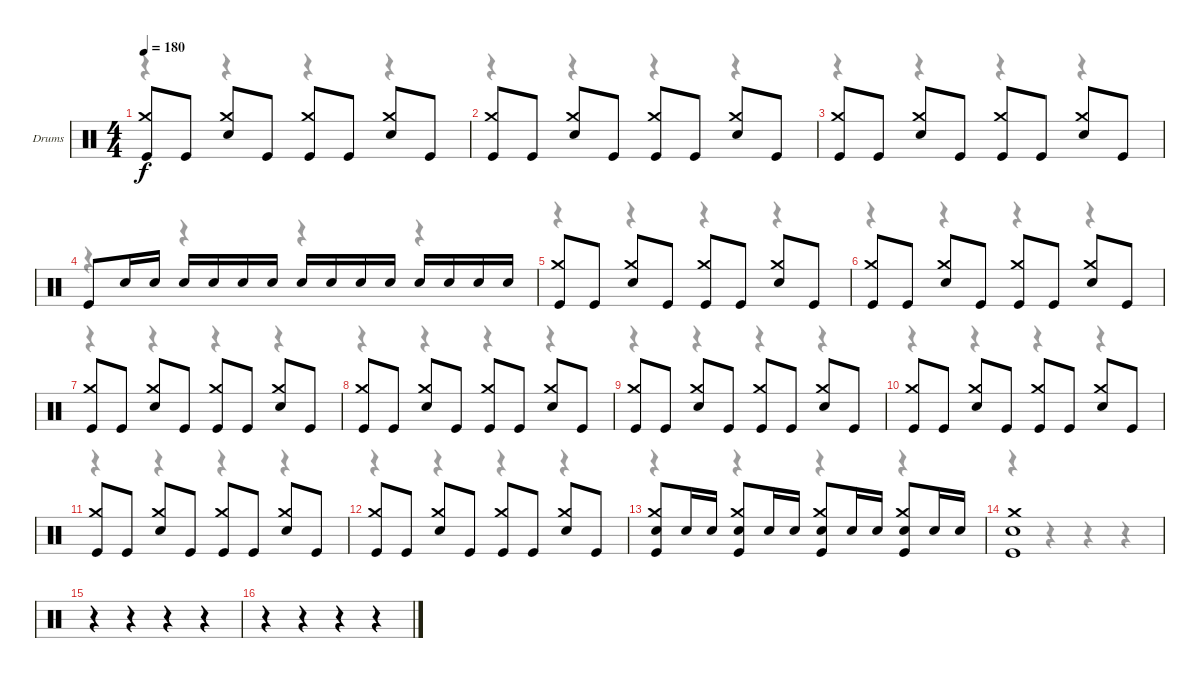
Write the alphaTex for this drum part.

\bracketExtendMode groupsimilarinstruments
\firstSystemTrackNameOrientation horizontal
\otherSystemsTrackNameOrientation horizontal
\track ("Drumkit" "Drums") {instrument percussion}
\staff {score}
\articulation defaults
\voice
\ts (4 4)
\tempo 180
\clef neutral
\ks c
("Crash medium (hit)" "Kick (hit)").8{dy f} "Kick (hit)".8 ("Crash medium (hit)" "Snare (hit) 2").8 "Kick (hit)".8 ("Crash medium (hit)" "Kick (hit)").8 "Kick (hit)".8 ("Crash medium (hit)" "Snare (hit) 2").8 "Kick (hit)".8 |
("Crash medium (hit)" "Kick (hit)").8 "Kick (hit)".8 ("Crash medium (hit)" "Snare (hit) 2").8 "Kick (hit)".8 ("Crash medium (hit)" "Kick (hit)").8 "Kick (hit)".8 ("Crash medium (hit)" "Snare (hit) 2").8 "Kick (hit)".8 |
("Crash medium (hit)" "Kick (hit)").8 "Kick (hit)".8 ("Crash medium (hit)" "Snare (hit) 2").8 "Kick (hit)".8 ("Crash medium (hit)" "Kick (hit)").8 "Kick (hit)".8 ("Crash medium (hit)" "Snare (hit) 2").8 "Kick (hit)".8 |
"Kick (hit)".8 "Snare (hit) 2".16 "Snare (hit) 2".16 "Snare (hit) 2".16 "Snare (hit) 2".16 "Snare (hit) 2".16 "Snare (hit) 2".16 "Snare (hit) 2".16 "Snare (hit) 2".16 "Snare (hit) 2".16 "Snare (hit) 2".16 "Snare (hit) 2".16 "Snare (hit) 2".16 "Snare (hit) 2".16 "Snare (hit) 2".16 |
("Crash medium (hit)" "Kick (hit)").8 "Kick (hit)".8 ("Crash medium (hit)" "Snare (hit) 2").8 "Kick (hit)".8 ("Crash medium (hit)" "Kick (hit)").8 "Kick (hit)".8 ("Crash medium (hit)" "Snare (hit) 2").8 "Kick (hit)".8 |
("Crash medium (hit)" "Kick (hit)").8 "Kick (hit)".8 ("Crash medium (hit)" "Snare (hit) 2").8 "Kick (hit)".8 ("Crash medium (hit)" "Kick (hit)").8 "Kick (hit)".8 ("Crash medium (hit)" "Snare (hit) 2").8 "Kick (hit)".8 |
("Crash medium (hit)" "Kick (hit)").8 "Kick (hit)".8 ("Crash medium (hit)" "Snare (hit) 2").8 "Kick (hit)".8 ("Crash medium (hit)" "Kick (hit)").8 "Kick (hit)".8 ("Crash medium (hit)" "Snare (hit) 2").8 "Kick (hit)".8 |
("Crash medium (hit)" "Kick (hit)").8 "Kick (hit)".8 ("Crash medium (hit)" "Snare (hit) 2").8 "Kick (hit)".8 ("Crash medium (hit)" "Kick (hit)").8 "Kick (hit)".8 ("Crash medium (hit)" "Snare (hit) 2").8 "Kick (hit)".8 |
("Crash medium (hit)" "Kick (hit)").8 "Kick (hit)".8 ("Crash medium (hit)" "Snare (hit) 2").8 "Kick (hit)".8 ("Crash medium (hit)" "Kick (hit)").8 "Kick (hit)".8 ("Crash medium (hit)" "Snare (hit) 2").8 "Kick (hit)".8 |
("Crash medium (hit)" "Kick (hit)").8 "Kick (hit)".8 ("Crash medium (hit)" "Snare (hit) 2").8 "Kick (hit)".8 ("Crash medium (hit)" "Kick (hit)").8 "Kick (hit)".8 ("Crash medium (hit)" "Snare (hit) 2").8 "Kick (hit)".8 |
("Crash medium (hit)" "Kick (hit)").8 "Kick (hit)".8 ("Crash medium (hit)" "Snare (hit) 2").8 "Kick (hit)".8 ("Crash medium (hit)" "Kick (hit)").8 "Kick (hit)".8 ("Crash medium (hit)" "Snare (hit) 2").8 "Kick (hit)".8 |
("Crash medium (hit)" "Kick (hit)").8 "Kick (hit)".8 ("Crash medium (hit)" "Snare (hit) 2").8 "Kick (hit)".8 ("Crash medium (hit)" "Kick (hit)").8 "Kick (hit)".8 ("Crash medium (hit)" "Snare (hit) 2").8 "Kick (hit)".8 |
("Crash medium (hit)" "Snare (hit) 2" "Kick (hit)").8 "Snare (hit) 2".16 "Snare (hit) 2".16 ("Crash medium (hit)" "Snare (hit) 2" "Kick (hit)").8 "Snare (hit) 2".16 "Snare (hit) 2".16 ("Crash medium (hit)" "Snare (hit) 2" "Kick (hit)").8 "Snare (hit) 2".16 "Snare (hit) 2".16 ("Crash medium (hit)" "Snare (hit) 2" "Kick (hit)").8 "Snare (hit) 2".16 "Snare (hit) 2".16 |
("Crash medium (hit)" "Snare (hit) 2" "Kick (hit)").1 |
r.4 r.4 r.4 r.4 |
r.4 r.4 r.4 r.4
\voice
\clef neutral
\ottava regular
\simile none
\ks c
r.4{dy mf} r.4 r.4 r.4 |
r.4 r.4 r.4 r.4 |
r.4 r.4 r.4 r.4 |
r.4 r.4 r.4 r.4 |
r.4 r.4 r.4 r.4 |
r.4 r.4 r.4 r.4 |
r.4 r.4 r.4 r.4 |
r.4 r.4 r.4 r.4 |
r.4 r.4 r.4 r.4 |
r.4 r.4 r.4 r.4 |
r.4 r.4 r.4 r.4 |
r.4 r.4 r.4 r.4 |
r.4 r.4 r.4 r.4 |
r.4 r.4 r.4 r.4 |
r.4 r.4 r.4 r.4 |
r.4 r.4 r.4 r.4
